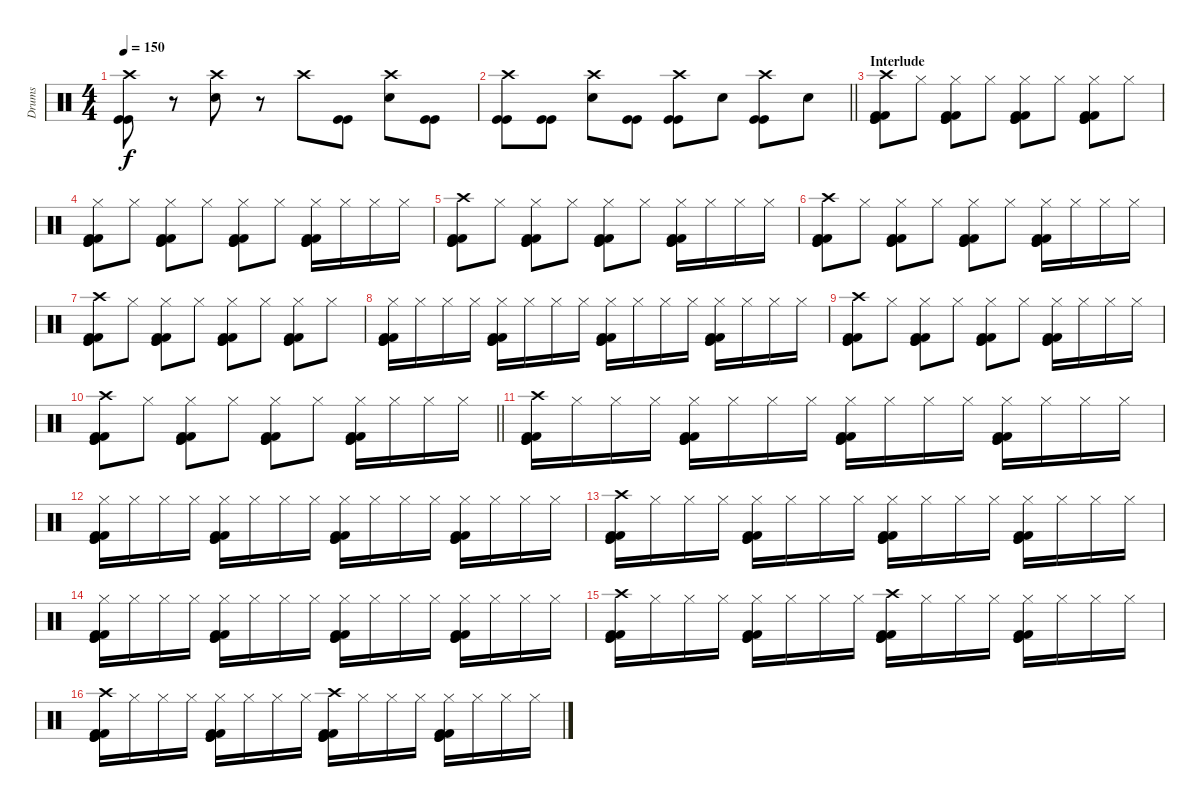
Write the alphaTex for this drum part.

\track ("Drums" "Drums") {instrument percussion}
\staff {score}
\articulation defaults
\ts (4 4)
\tempo 150
\clef neutral
\ks c
("Crash high (hit)" "Kick (hit)" "Kick (hit)").8{dy f} r.8 ("Crash high (hit)" "Snare (hit) 2").8 r.8 "Crash high (hit)".8 ("Kick (hit)" "Kick (hit)").8 ("Crash high (hit)" "Snare (hit) 2").8 ("Kick (hit)" "Kick (hit)").8 |
\barLineRight lightlight
("Crash high (hit)" "Kick (hit)" "Kick (hit)").8 ("Kick (hit)" "Kick (hit)").8 ("Crash high (hit)" "Snare (hit) 2").8 ("Kick (hit)" "Kick (hit)").8 ("Crash high (hit)" "Kick (hit)" "Kick (hit)").8 "Snare (hit) 2".8 ("Crash high (hit)" "Kick (hit)" "Kick (hit)").8 "Snare (hit) 2".8 |
\section ("" "Interlude")
("Crash high (hit)" "Kick (hit)" "Kick (hit)" "Kick (hit) 2" "Kick (hit) 2").8 "Hi-Hat (closed)".8 ("Hi-Hat (closed)" "Kick (hit)" "Kick (hit)" "Kick (hit) 2" "Kick (hit) 2").8 "Hi-Hat (closed)".8 ("Hi-Hat (closed)" "Kick (hit)" "Kick (hit)" "Kick (hit) 2" "Kick (hit) 2").8 "Hi-Hat (closed)".8 ("Hi-Hat (closed)" "Kick (hit)" "Kick (hit)" "Kick (hit) 2" "Kick (hit) 2").8 "Hi-Hat (closed)".8 |
("Hi-Hat (closed)" "Kick (hit)" "Kick (hit)" "Kick (hit) 2" "Kick (hit) 2").8 "Hi-Hat (closed)".8 ("Hi-Hat (closed)" "Kick (hit)" "Kick (hit)" "Kick (hit) 2" "Kick (hit) 2").8 "Hi-Hat (closed)".8 ("Hi-Hat (closed)" "Kick (hit)" "Kick (hit)" "Kick (hit) 2" "Kick (hit) 2").8 "Hi-Hat (closed)".8 ("Hi-Hat (closed)" "Kick (hit)" "Kick (hit)" "Kick (hit) 2" "Kick (hit) 2").16 "Hi-Hat (closed)".16 "Hi-Hat (closed)".16 "Hi-Hat (closed)".16 |
("Crash high (hit)" "Kick (hit)" "Kick (hit)" "Kick (hit) 2" "Kick (hit) 2").8 "Hi-Hat (closed)".8 ("Hi-Hat (closed)" "Kick (hit)" "Kick (hit)" "Kick (hit) 2" "Kick (hit) 2").8 "Hi-Hat (closed)".8 ("Hi-Hat (closed)" "Kick (hit)" "Kick (hit)" "Kick (hit) 2" "Kick (hit) 2").8 "Hi-Hat (closed)".8 ("Hi-Hat (closed)" "Kick (hit)" "Kick (hit)" "Kick (hit) 2" "Kick (hit) 2").16 "Hi-Hat (closed)".16 "Hi-Hat (closed)".16 "Hi-Hat (closed)".16 |
("Crash high (hit)" "Kick (hit)" "Kick (hit)" "Kick (hit) 2" "Kick (hit) 2").8 "Hi-Hat (closed)".8 ("Hi-Hat (closed)" "Kick (hit)" "Kick (hit)" "Kick (hit) 2" "Kick (hit) 2").8 "Hi-Hat (closed)".8 ("Hi-Hat (closed)" "Kick (hit)" "Kick (hit)" "Kick (hit) 2" "Kick (hit) 2").8 "Hi-Hat (closed)".8 ("Hi-Hat (closed)" "Kick (hit)" "Kick (hit)" "Kick (hit) 2" "Kick (hit) 2").16 "Hi-Hat (closed)".16 "Hi-Hat (closed)".16 "Hi-Hat (closed)".16 |
("Crash high (hit)" "Kick (hit)" "Kick (hit)" "Kick (hit) 2" "Kick (hit) 2").8 "Hi-Hat (closed)".8 ("Hi-Hat (closed)" "Kick (hit)" "Kick (hit)" "Kick (hit) 2" "Kick (hit) 2").8 "Hi-Hat (closed)".8 ("Hi-Hat (closed)" "Kick (hit)" "Kick (hit)" "Kick (hit) 2" "Kick (hit) 2").8 "Hi-Hat (closed)".8 ("Hi-Hat (closed)" "Kick (hit)" "Kick (hit)" "Kick (hit) 2" "Kick (hit) 2").8 "Hi-Hat (closed)".8 |
("Hi-Hat (closed)" "Kick (hit)" "Kick (hit)" "Kick (hit) 2" "Kick (hit) 2").16 "Hi-Hat (closed)".16 "Hi-Hat (closed)".16 "Hi-Hat (closed)".16 ("Hi-Hat (closed)" "Kick (hit)" "Kick (hit)" "Kick (hit) 2" "Kick (hit) 2").16 "Hi-Hat (closed)".16 "Hi-Hat (closed)".16 "Hi-Hat (closed)".16 ("Hi-Hat (closed)" "Kick (hit)" "Kick (hit)" "Kick (hit) 2" "Kick (hit) 2").16 "Hi-Hat (closed)".16 "Hi-Hat (closed)".16 "Hi-Hat (closed)".16 ("Hi-Hat (closed)" "Kick (hit)" "Kick (hit)" "Kick (hit) 2" "Kick (hit) 2").16 "Hi-Hat (closed)".16 "Hi-Hat (closed)".16 "Hi-Hat (closed)".16 |
("Crash high (hit)" "Kick (hit)" "Kick (hit)" "Kick (hit) 2" "Kick (hit) 2").8 "Hi-Hat (closed)".8 ("Hi-Hat (closed)" "Kick (hit)" "Kick (hit)" "Kick (hit) 2" "Kick (hit) 2").8 "Hi-Hat (closed)".8 ("Hi-Hat (closed)" "Kick (hit)" "Kick (hit)" "Kick (hit) 2" "Kick (hit) 2").8 "Hi-Hat (closed)".8 ("Hi-Hat (closed)" "Kick (hit)" "Kick (hit)" "Kick (hit) 2" "Kick (hit) 2").16 "Hi-Hat (closed)".16 "Hi-Hat (closed)".16 "Hi-Hat (closed)".16 |
\barLineRight lightlight
("Crash high (hit)" "Kick (hit)" "Kick (hit)" "Kick (hit) 2" "Kick (hit) 2").8 "Hi-Hat (closed)".8 ("Hi-Hat (closed)" "Kick (hit)" "Kick (hit)" "Kick (hit) 2" "Kick (hit) 2").8 "Hi-Hat (closed)".8 ("Hi-Hat (closed)" "Kick (hit)" "Kick (hit)" "Kick (hit) 2" "Kick (hit) 2").8 "Hi-Hat (closed)".8 ("Hi-Hat (closed)" "Kick (hit)" "Kick (hit)" "Kick (hit) 2" "Kick (hit) 2").16 "Hi-Hat (closed)".16 "Hi-Hat (closed)".16 "Hi-Hat (closed)".16 |
("Crash high (hit)" "Kick (hit)" "Kick (hit)" "Kick (hit) 2" "Kick (hit) 2").16 "Hi-Hat (closed)".16 "Hi-Hat (closed)".16 "Hi-Hat (closed)".16 ("Hi-Hat (closed)" "Kick (hit)" "Kick (hit)" "Kick (hit) 2" "Kick (hit) 2").16 "Hi-Hat (closed)".16 "Hi-Hat (closed)".16 "Hi-Hat (closed)".16 ("Hi-Hat (closed)" "Kick (hit)" "Kick (hit)" "Kick (hit) 2" "Kick (hit) 2").16 "Hi-Hat (closed)".16 "Hi-Hat (closed)".16 "Hi-Hat (closed)".16 ("Hi-Hat (closed)" "Kick (hit)" "Kick (hit)" "Kick (hit) 2" "Kick (hit) 2").16 "Hi-Hat (closed)".16 "Hi-Hat (closed)".16 "Hi-Hat (closed)".16 |
("Hi-Hat (closed)" "Kick (hit)" "Kick (hit)" "Kick (hit) 2" "Kick (hit) 2").16 "Hi-Hat (closed)".16 "Hi-Hat (closed)".16 "Hi-Hat (closed)".16 ("Hi-Hat (closed)" "Kick (hit)" "Kick (hit)" "Kick (hit) 2" "Kick (hit) 2").16 "Hi-Hat (closed)".16 "Hi-Hat (closed)".16 "Hi-Hat (closed)".16 ("Hi-Hat (closed)" "Kick (hit)" "Kick (hit)" "Kick (hit) 2" "Kick (hit) 2").16 "Hi-Hat (closed)".16 "Hi-Hat (closed)".16 "Hi-Hat (closed)".16 ("Hi-Hat (closed)" "Kick (hit)" "Kick (hit)" "Kick (hit) 2" "Kick (hit) 2").16 "Hi-Hat (closed)".16 "Hi-Hat (closed)".16 "Hi-Hat (closed)".16 |
("Crash high (hit)" "Kick (hit)" "Kick (hit)" "Kick (hit) 2" "Kick (hit) 2").16 "Hi-Hat (closed)".16 "Hi-Hat (closed)".16 "Hi-Hat (closed)".16 ("Hi-Hat (closed)" "Kick (hit)" "Kick (hit)" "Kick (hit) 2" "Kick (hit) 2").16 "Hi-Hat (closed)".16 "Hi-Hat (closed)".16 "Hi-Hat (closed)".16 ("Hi-Hat (closed)" "Kick (hit)" "Kick (hit)" "Kick (hit) 2" "Kick (hit) 2").16 "Hi-Hat (closed)".16 "Hi-Hat (closed)".16 "Hi-Hat (closed)".16 ("Hi-Hat (closed)" "Kick (hit)" "Kick (hit)" "Kick (hit) 2" "Kick (hit) 2").16 "Hi-Hat (closed)".16 "Hi-Hat (closed)".16 "Hi-Hat (closed)".16 |
("Hi-Hat (closed)" "Kick (hit)" "Kick (hit)" "Kick (hit) 2" "Kick (hit) 2").16 "Hi-Hat (closed)".16 "Hi-Hat (closed)".16 "Hi-Hat (closed)".16 ("Hi-Hat (closed)" "Kick (hit)" "Kick (hit)" "Kick (hit) 2" "Kick (hit) 2").16 "Hi-Hat (closed)".16 "Hi-Hat (closed)".16 "Hi-Hat (closed)".16 ("Hi-Hat (closed)" "Kick (hit)" "Kick (hit)" "Kick (hit) 2" "Kick (hit) 2").16 "Hi-Hat (closed)".16 "Hi-Hat (closed)".16 "Hi-Hat (closed)".16 ("Hi-Hat (closed)" "Kick (hit)" "Kick (hit)" "Kick (hit) 2" "Kick (hit) 2").16 "Hi-Hat (closed)".16 "Hi-Hat (closed)".16 "Hi-Hat (closed)".16 |
("Crash high (hit)" "Kick (hit)" "Kick (hit)" "Kick (hit) 2" "Kick (hit) 2").16 "Hi-Hat (closed)".16 "Hi-Hat (closed)".16 "Hi-Hat (closed)".16 ("Hi-Hat (closed)" "Kick (hit)" "Kick (hit)" "Kick (hit) 2" "Kick (hit) 2").16 "Hi-Hat (closed)".16 "Hi-Hat (closed)".16 "Hi-Hat (closed)".16 ("Crash high (hit)" "Kick (hit)" "Kick (hit)" "Kick (hit) 2" "Kick (hit) 2").16 "Hi-Hat (closed)".16 "Hi-Hat (closed)".16 "Hi-Hat (closed)".16 ("Hi-Hat (closed)" "Kick (hit)" "Kick (hit)" "Kick (hit) 2" "Kick (hit) 2").16 "Hi-Hat (closed)".16 "Hi-Hat (closed)".16 "Hi-Hat (closed)".16 |
("Crash high (hit)" "Kick (hit)" "Kick (hit)" "Kick (hit) 2" "Kick (hit) 2").16 "Hi-Hat (closed)".16 "Hi-Hat (closed)".16 "Hi-Hat (closed)".16 ("Hi-Hat (closed)" "Kick (hit)" "Kick (hit)" "Kick (hit) 2" "Kick (hit) 2").16 "Hi-Hat (closed)".16 "Hi-Hat (closed)".16 "Hi-Hat (closed)".16 ("Crash high (hit)" "Kick (hit)" "Kick (hit)" "Kick (hit) 2" "Kick (hit) 2").16 "Hi-Hat (closed)".16 "Hi-Hat (closed)".16 "Hi-Hat (closed)".16 ("Hi-Hat (closed)" "Kick (hit)" "Kick (hit)" "Kick (hit) 2" "Kick (hit) 2").16 "Hi-Hat (closed)".16 "Hi-Hat (closed)".16 "Hi-Hat (closed)".16
